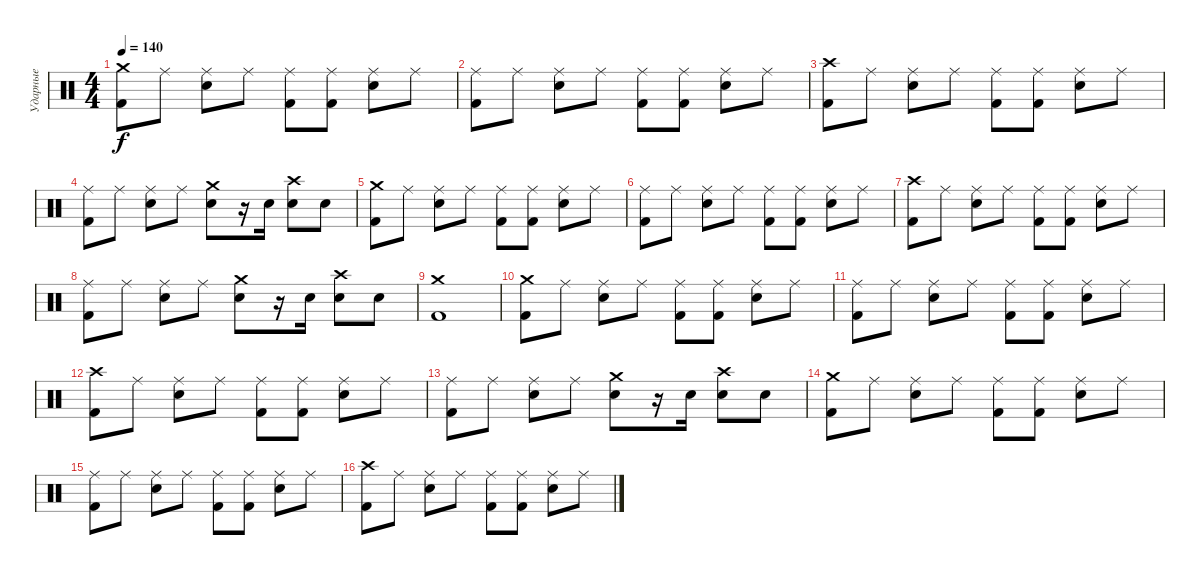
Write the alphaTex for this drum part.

\track ("Ударные" "Ударные") {instrument percussion}
\staff {score}
\articulation defaults
\ts (4 4)
\tempo 140
\clef neutral
\ks c
("Crash medium (hit)" "Kick (hit) 2").8{dy f} "Ride (middle)".8 ("Ride (middle)" "Electric Snare (hit)").8 "Ride (middle)".8 ("Ride (middle)" "Kick (hit) 2").8 ("Ride (middle)" "Kick (hit) 2").8 ("Ride (middle)" "Electric Snare (hit)").8 "Ride (middle)".8 |
("Ride (middle)" "Kick (hit) 2").8 "Ride (middle)".8 ("Ride (middle)" "Electric Snare (hit)").8 "Ride (middle)".8 ("Ride (middle)" "Kick (hit) 2").8 ("Ride (middle)" "Kick (hit) 2").8 ("Ride (middle)" "Electric Snare (hit)").8 "Ride (middle)".8 |
("Crash high (hit)" "Kick (hit) 2").8 "Ride (middle)".8 ("Ride (middle)" "Electric Snare (hit)").8 "Ride (middle)".8 ("Ride (middle)" "Kick (hit) 2").8 ("Ride (middle)" "Kick (hit) 2").8 ("Ride (middle)" "Electric Snare (hit)").8 "Ride (middle)".8 |
("Ride (middle)" "Kick (hit) 2").8 "Ride (middle)".8 ("Ride (middle)" "Electric Snare (hit)").8 "Ride (middle)".8 ("Crash medium (hit)" "Electric Snare (hit)").8 r.16 "Electric Snare (hit)".16 ("Crash high (hit)" "Electric Snare (hit)").8 "Electric Snare (hit)".8 |
("Crash medium (hit)" "Kick (hit) 2").8 "Ride (middle)".8 ("Ride (middle)" "Electric Snare (hit)").8 "Ride (middle)".8 ("Ride (middle)" "Kick (hit) 2").8 ("Ride (middle)" "Kick (hit) 2").8 ("Ride (middle)" "Electric Snare (hit)").8 "Ride (middle)".8 |
("Ride (middle)" "Kick (hit) 2").8 "Ride (middle)".8 ("Ride (middle)" "Electric Snare (hit)").8 "Ride (middle)".8 ("Ride (middle)" "Kick (hit) 2").8 ("Ride (middle)" "Kick (hit) 2").8 ("Ride (middle)" "Electric Snare (hit)").8 "Ride (middle)".8 |
("Crash high (hit)" "Kick (hit) 2").8 "Ride (middle)".8 ("Ride (middle)" "Electric Snare (hit)").8 "Ride (middle)".8 ("Ride (middle)" "Kick (hit) 2").8 ("Ride (middle)" "Kick (hit) 2").8 ("Ride (middle)" "Electric Snare (hit)").8 "Ride (middle)".8 |
("Ride (middle)" "Kick (hit) 2").8 "Ride (middle)".8 ("Ride (middle)" "Electric Snare (hit)").8 "Ride (middle)".8 ("Crash medium (hit)" "Electric Snare (hit)").8 r.16 "Electric Snare (hit)".16 ("Crash high (hit)" "Electric Snare (hit)").8 "Electric Snare (hit)".8 |
("Crash medium (hit)" "Kick (hit) 2").1 |
("Crash medium (hit)" "Kick (hit) 2").8 "Ride (middle)".8 ("Ride (middle)" "Electric Snare (hit)").8 "Ride (middle)".8 ("Ride (middle)" "Kick (hit) 2").8 ("Ride (middle)" "Kick (hit) 2").8 ("Ride (middle)" "Electric Snare (hit)").8 "Ride (middle)".8 |
("Ride (middle)" "Kick (hit) 2").8 "Ride (middle)".8 ("Ride (middle)" "Electric Snare (hit)").8 "Ride (middle)".8 ("Ride (middle)" "Kick (hit) 2").8 ("Ride (middle)" "Kick (hit) 2").8 ("Ride (middle)" "Electric Snare (hit)").8 "Ride (middle)".8 |
("Crash high (hit)" "Kick (hit) 2").8 "Ride (middle)".8 ("Ride (middle)" "Electric Snare (hit)").8 "Ride (middle)".8 ("Ride (middle)" "Kick (hit) 2").8 ("Ride (middle)" "Kick (hit) 2").8 ("Ride (middle)" "Electric Snare (hit)").8 "Ride (middle)".8 |
("Ride (middle)" "Kick (hit) 2").8 "Ride (middle)".8 ("Ride (middle)" "Electric Snare (hit)").8 "Ride (middle)".8 ("Crash medium (hit)" "Electric Snare (hit)").8 r.16 "Electric Snare (hit)".16 ("Crash high (hit)" "Electric Snare (hit)").8 "Electric Snare (hit)".8 |
("Crash medium (hit)" "Kick (hit) 2").8 "Ride (middle)".8 ("Ride (middle)" "Electric Snare (hit)").8 "Ride (middle)".8 ("Ride (middle)" "Kick (hit) 2").8 ("Ride (middle)" "Kick (hit) 2").8 ("Ride (middle)" "Electric Snare (hit)").8 "Ride (middle)".8 |
("Ride (middle)" "Kick (hit) 2").8 "Ride (middle)".8 ("Ride (middle)" "Electric Snare (hit)").8 "Ride (middle)".8 ("Ride (middle)" "Kick (hit) 2").8 ("Ride (middle)" "Kick (hit) 2").8 ("Ride (middle)" "Electric Snare (hit)").8 "Ride (middle)".8 |
("Crash high (hit)" "Kick (hit) 2").8 "Ride (middle)".8 ("Ride (middle)" "Electric Snare (hit)").8 "Ride (middle)".8 ("Ride (middle)" "Kick (hit) 2").8 ("Ride (middle)" "Kick (hit) 2").8 ("Ride (middle)" "Electric Snare (hit)").8 "Ride (middle)".8
